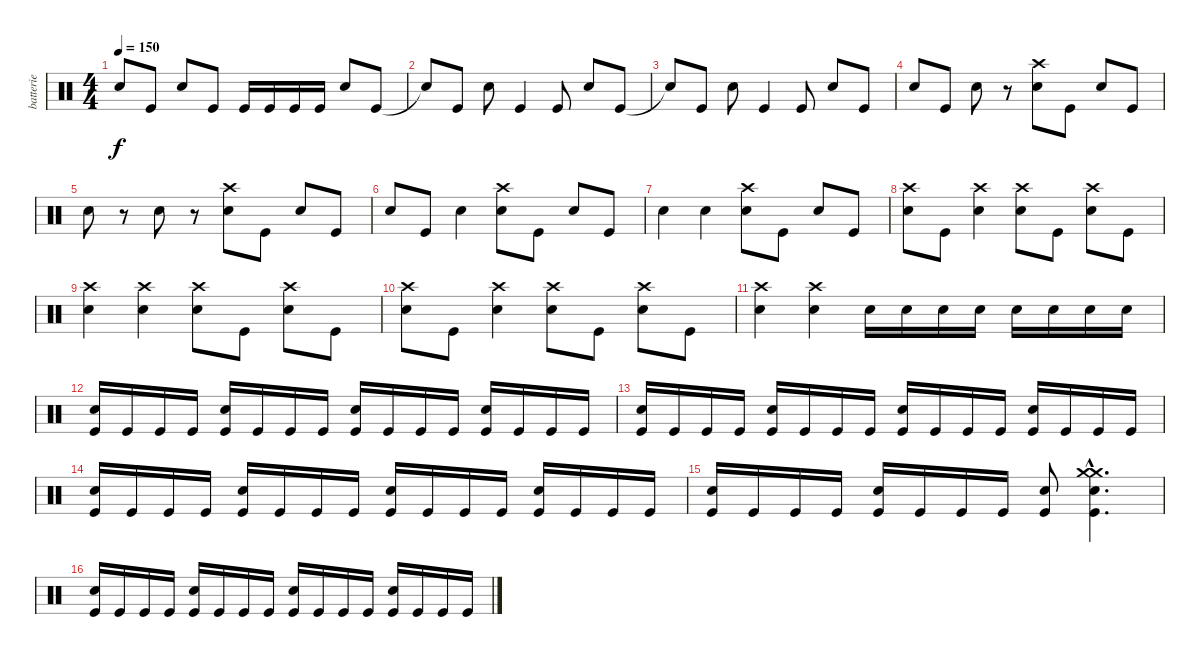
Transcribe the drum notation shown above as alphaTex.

\track ("batterie" "batterie") {instrument percussion}
\staff {score}
\articulation defaults
\ts (4 4)
\tempo 150
\clef neutral
\ks c "Snare (hit)"{t}.8{dy f} "Kick (hit)".8 "Snare (hit) 2".8 "Kick (hit)".8 "Kick (hit)".16 "Kick (hit)".16 "Kick (hit)".16 "Kick (hit)".16 "Snare (hit) 2".8 "Kick (hit)".8
|
"Snare (hit)"{t}.8 "Kick (hit)".8 "Snare (hit) 2".8 "Kick (hit)".4 "Kick (hit)".8 "Snare (hit) 2".8 "Kick (hit)".8 |
"Snare (hit)"{t}.8 "Kick (hit)".8 "Snare (hit) 2".8 "Kick (hit)".4 "Kick (hit)".8 "Snare (hit) 2".8 "Kick (hit)".8 |
"Snare (hit) 2".8 "Kick (hit)".8 "Snare (hit) 2".8 r.8 ("Crash high (hit)" "Snare (hit) 2").8 "Kick (hit)".8 "Snare (hit) 2".8 "Kick (hit)".8 |
"Snare (hit) 2".8 r.8 "Snare (hit) 2".8 r.8 ("Crash high (hit)" "Snare (hit) 2").8 "Kick (hit)".8 "Snare (hit) 2".8 "Kick (hit)".8 |
"Snare (hit) 2".8 "Kick (hit)".8 "Snare (hit) 2".4 ("Crash high (hit)" "Snare (hit) 2").8 "Kick (hit)".8 "Snare (hit) 2".8 "Kick (hit)".8 |
"Snare (hit) 2".4 "Snare (hit) 2".4 ("Crash high (hit)" "Snare (hit) 2").8 "Kick (hit)".8 "Snare (hit) 2".8 "Kick (hit)".8 |
("Crash high (hit)" "Snare (hit) 2").8 "Kick (hit)".8 ("Crash high (hit)" "Snare (hit) 2").4 ("Crash high (hit)" "Snare (hit) 2").8 "Kick (hit)".8 ("Crash high (hit)" "Snare (hit) 2").8 "Kick (hit)".8 |
("Crash high (hit)" "Snare (hit) 2").4 ("Crash high (hit)" "Snare (hit) 2").4 ("Crash high (hit)" "Snare (hit) 2").8 "Kick (hit)".8 ("Crash high (hit)" "Snare (hit) 2").8 "Kick (hit)".8 |
("Crash high (hit)" "Snare (hit) 2").8 "Kick (hit)".8 ("Crash high (hit)" "Snare (hit) 2").4 ("Crash high (hit)" "Snare (hit) 2").8 "Kick (hit)".8 ("Crash high (hit)" "Snare (hit) 2").8 "Kick (hit)".8 |
("Crash high (hit)" "Snare (hit) 2").4 ("Crash high (hit)" "Snare (hit) 2").4 "Snare (hit) 2".16 "Snare (hit) 2".16 "Snare (hit) 2".16 "Snare (hit) 2".16 "Snare (hit) 2".16 "Snare (hit) 2".16 "Snare (hit) 2".16 "Snare (hit) 2".16 |
("Snare (hit) 2" "Kick (hit)").16 "Kick (hit)".16 "Kick (hit)".16 "Kick (hit)".16 ("Snare (hit) 2" "Kick (hit)").16 "Kick (hit)".16 "Kick (hit)".16 "Kick (hit)".16 ("Snare (hit) 2" "Kick (hit)").16 "Kick (hit)".16 "Kick (hit)".16 "Kick (hit)".16 ("Snare (hit) 2" "Kick (hit)").16 "Kick (hit)".16 "Kick (hit)".16 "Kick (hit)".16 |
("Snare (hit) 2" "Kick (hit)").16 "Kick (hit)".16 "Kick (hit)".16 "Kick (hit)".16 ("Snare (hit) 2" "Kick (hit)").16 "Kick (hit)".16 "Kick (hit)".16 "Kick (hit)".16 ("Snare (hit) 2" "Kick (hit)").16 "Kick (hit)".16 "Kick (hit)".16 "Kick (hit)".16 ("Snare (hit) 2" "Kick (hit)").16 "Kick (hit)".16 "Kick (hit)".16 "Kick (hit)".16 |
("Snare (hit) 2" "Kick (hit)").16 "Kick (hit)".16 "Kick (hit)".16 "Kick (hit)".16 ("Snare (hit) 2" "Kick (hit)").16 "Kick (hit)".16 "Kick (hit)".16 "Kick (hit)".16 ("Snare (hit) 2" "Kick (hit)").16 "Kick (hit)".16 "Kick (hit)".16 "Kick (hit)".16 ("Snare (hit) 2" "Kick (hit)").16 "Kick (hit)".16 "Kick (hit)".16 "Kick (hit)".16 |
("Snare (hit) 2" "Kick (hit)").16 "Kick (hit)".16 "Kick (hit)".16 "Kick (hit)".16 ("Snare (hit) 2" "Kick (hit)").16 "Kick (hit)".16 "Kick (hit)".16 "Kick (hit)".16 ("Snare (hit) 2" "Kick (hit)").8 ("Crash medium (hit)"{hac} "Crash medium (hit)"{hac} "Snare (hit) 2"{hac} "Kick (hit)"{hac}).4{d} |
("Snare (hit) 2" "Kick (hit)").16 "Kick (hit)".16 "Kick (hit)".16 "Kick (hit)".16 ("Snare (hit) 2" "Kick (hit)").16 "Kick (hit)".16 "Kick (hit)".16 "Kick (hit)".16 ("Snare (hit) 2" "Kick (hit)").16 "Kick (hit)".16 "Kick (hit)".16 "Kick (hit)".16 ("Snare (hit) 2" "Kick (hit)").16 "Kick (hit)".16 "Kick (hit)".16 "Kick (hit)".16
